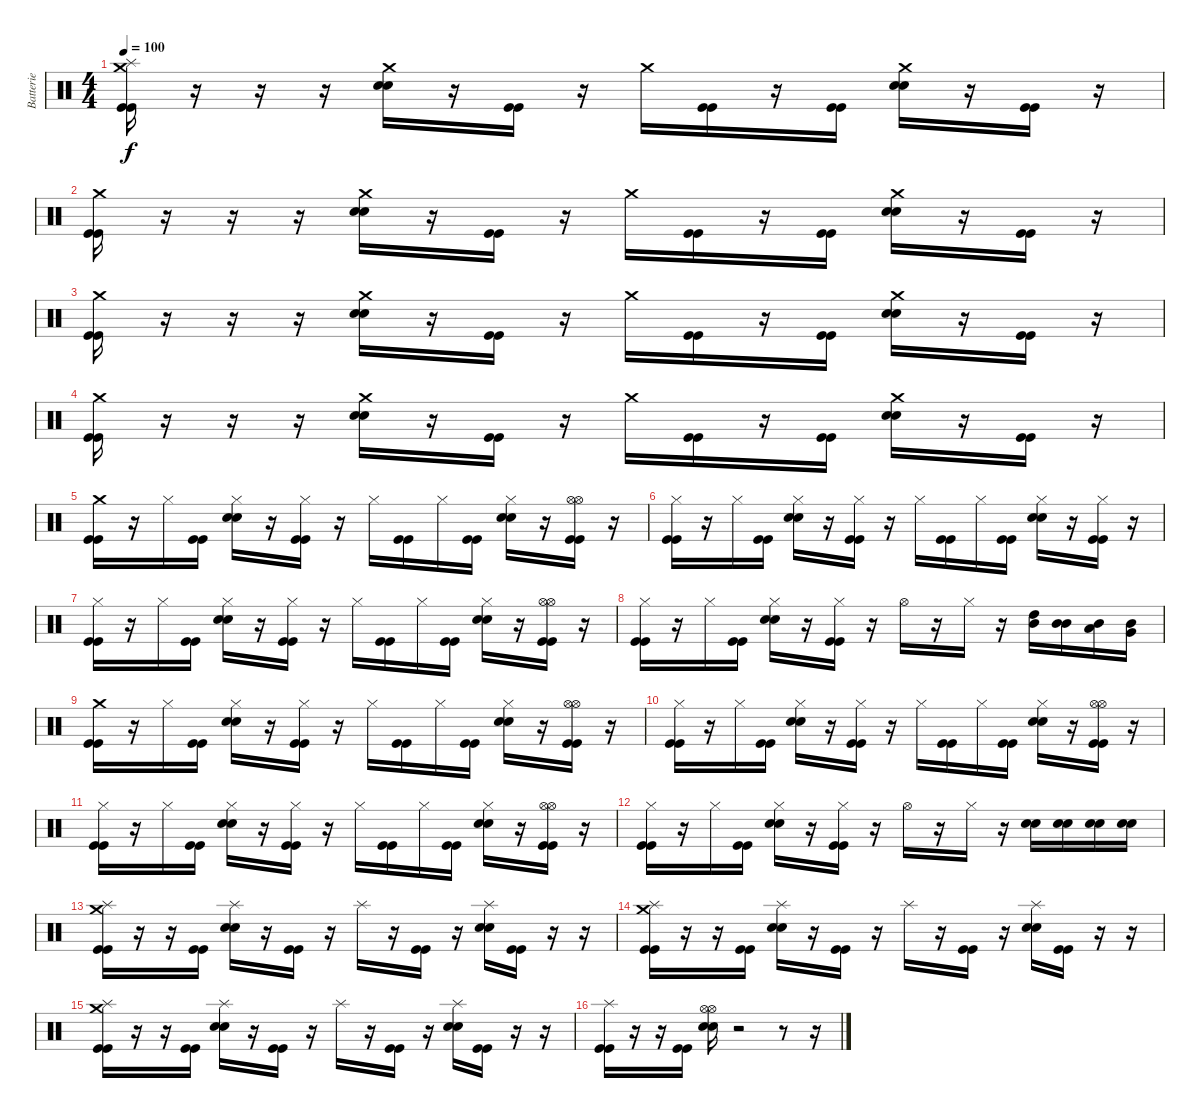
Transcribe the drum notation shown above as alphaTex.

\track ("Batterie" "Batterie") {instrument percussion}
\staff {score}
\articulation defaults
\ts (4 4)
\tempo 100
\clef neutral
\ks c
("Crash medium (hit)" "Splash (hit)" "Kick (hit)" "Kick (hit)").16{dy f} r.16 r.16 r.16 ("Crash medium (hit)" "Electric Snare (hit)" "Electric Snare (hit)").16 r.16 ("Kick (hit)" "Kick (hit)").16 r.16 "Crash medium (hit)".16 ("Kick (hit)" "Kick (hit)").16 r.16 ("Kick (hit)" "Kick (hit)").16 ("Crash medium (hit)" "Electric Snare (hit)" "Electric Snare (hit)").16 r.16 ("Kick (hit)" "Kick (hit)").16 r.16 |
("Crash medium (hit)" "Kick (hit)" "Kick (hit)").16 r.16 r.16 r.16 ("Crash medium (hit)" "Electric Snare (hit)" "Electric Snare (hit)").16 r.16 ("Kick (hit)" "Kick (hit)").16 r.16 "Crash medium (hit)".16 ("Kick (hit)" "Kick (hit)").16 r.16 ("Kick (hit)" "Kick (hit)").16 ("Crash medium (hit)" "Electric Snare (hit)" "Electric Snare (hit)").16 r.16 ("Kick (hit)" "Kick (hit)").16 r.16 |
("Crash medium (hit)" "Kick (hit)" "Kick (hit)").16 r.16 r.16 r.16 ("Crash medium (hit)" "Electric Snare (hit)" "Electric Snare (hit)").16 r.16 ("Kick (hit)" "Kick (hit)").16 r.16 "Crash medium (hit)".16 ("Kick (hit)" "Kick (hit)").16 r.16 ("Kick (hit)" "Kick (hit)").16 ("Crash medium (hit)" "Electric Snare (hit)" "Electric Snare (hit)").16 r.16 ("Kick (hit)" "Kick (hit)").16 r.16 |
("Crash medium (hit)" "Kick (hit)" "Kick (hit)").16 r.16 r.16 r.16 ("Crash medium (hit)" "Electric Snare (hit)" "Electric Snare (hit)").16 r.16 ("Kick (hit)" "Kick (hit)").16 r.16 "Crash medium (hit)".16 ("Kick (hit)" "Kick (hit)").16 r.16 ("Kick (hit)" "Kick (hit)").16 ("Crash medium (hit)" "Electric Snare (hit)" "Electric Snare (hit)").16 r.16 ("Kick (hit)" "Kick (hit)").16 r.16 |
("Crash medium (hit)" "Kick (hit)" "Kick (hit)").16 r.16 "Hi-Hat (closed)".16 ("Kick (hit)" "Kick (hit)").16 ("Hi-Hat (closed)" "Electric Snare (hit)" "Electric Snare (hit)").16 r.16 ("Hi-Hat (closed)" "Kick (hit)" "Kick (hit)").16 r.16 "Hi-Hat (closed)".16 ("Kick (hit)" "Kick (hit)").16 "Hi-Hat (closed)".16 ("Kick (hit)" "Kick (hit)").16 ("Hi-Hat (closed)" "Electric Snare (hit)" "Electric Snare (hit)").16 r.16 ("Hi-Hat (open)" "Hi-Hat (open)" "Kick (hit)" "Kick (hit)").16 r.16 |
("Hi-Hat (closed)" "Kick (hit)" "Kick (hit)").16 r.16 "Hi-Hat (closed)".16 ("Kick (hit)" "Kick (hit)").16 ("Hi-Hat (closed)" "Electric Snare (hit)" "Electric Snare (hit)").16 r.16 ("Hi-Hat (closed)" "Kick (hit)" "Kick (hit)").16 r.16 "Hi-Hat (closed)".16 ("Kick (hit)" "Kick (hit)").16 "Hi-Hat (closed)".16 ("Kick (hit)" "Kick (hit)").16 ("Hi-Hat (closed)" "Electric Snare (hit)" "Electric Snare (hit)").16 r.16 ("Hi-Hat (closed)" "Kick (hit)" "Kick (hit)").16 r.16 |
("Hi-Hat (closed)" "Kick (hit)" "Kick (hit)").16 r.16 "Hi-Hat (closed)".16 ("Kick (hit)" "Kick (hit)").16 ("Hi-Hat (closed)" "Electric Snare (hit)" "Electric Snare (hit)").16 r.16 ("Hi-Hat (closed)" "Kick (hit)" "Kick (hit)").16 r.16 "Hi-Hat (closed)".16 ("Kick (hit)" "Kick (hit)").16 "Hi-Hat (closed)".16 ("Kick (hit)" "Kick (hit)").16 ("Hi-Hat (closed)" "Electric Snare (hit)" "Electric Snare (hit)").16 r.16 ("Hi-Hat (open)" "Hi-Hat (open)" "Kick (hit)" "Kick (hit)").16 r.16 |
("Hi-Hat (closed)" "Kick (hit)" "Kick (hit)").16 r.16 "Hi-Hat (closed)".16 ("Kick (hit)" "Kick (hit)").16 ("Hi-Hat (closed)" "Electric Snare (hit)" "Electric Snare (hit)").16 r.16 ("Hi-Hat (closed)" "Kick (hit)" "Kick (hit)").16 r.16 "Hi-Hat (open)".16 r.16 "Hi-Hat (closed)".16 r.16 ("High Tom (hit)" "Mid Tom (hit)").16 ("Mid Tom (hit)" "Mid Tom (hit)").16 ("Low Tom (hit)" "Mid Tom (hit)").16 ("Very Low Tom (hit)" "Mid Tom (hit)").16 |
("Crash medium (hit)" "Kick (hit)" "Kick (hit)").16 r.16 "Hi-Hat (closed)".16 ("Kick (hit)" "Kick (hit)").16 ("Hi-Hat (closed)" "Electric Snare (hit)" "Electric Snare (hit)").16 r.16 ("Hi-Hat (closed)" "Kick (hit)" "Kick (hit)").16 r.16 "Hi-Hat (closed)".16 ("Kick (hit)" "Kick (hit)").16 "Hi-Hat (closed)".16 ("Kick (hit)" "Kick (hit)").16 ("Hi-Hat (closed)" "Electric Snare (hit)" "Electric Snare (hit)").16 r.16 ("Hi-Hat (open)" "Hi-Hat (open)" "Kick (hit)" "Kick (hit)").16 r.16 |
("Hi-Hat (closed)" "Kick (hit)" "Kick (hit)").16 r.16 "Hi-Hat (closed)".16 ("Kick (hit)" "Kick (hit)").16 ("Hi-Hat (closed)" "Electric Snare (hit)" "Electric Snare (hit)").16 r.16 ("Hi-Hat (closed)" "Kick (hit)" "Kick (hit)").16 r.16 "Hi-Hat (closed)".16 ("Kick (hit)" "Kick (hit)").16 "Hi-Hat (closed)".16 ("Kick (hit)" "Kick (hit)").16 ("Hi-Hat (closed)" "Electric Snare (hit)" "Electric Snare (hit)").16 r.16 ("Hi-Hat (open)" "Hi-Hat (open)" "Kick (hit)" "Kick (hit)").16 r.16 |
("Hi-Hat (closed)" "Kick (hit)" "Kick (hit)").16 r.16 "Hi-Hat (closed)".16 ("Kick (hit)" "Kick (hit)").16 ("Hi-Hat (closed)" "Electric Snare (hit)" "Electric Snare (hit)").16 r.16 ("Hi-Hat (closed)" "Kick (hit)" "Kick (hit)").16 r.16 "Hi-Hat (closed)".16 ("Kick (hit)" "Kick (hit)").16 "Hi-Hat (closed)".16 ("Kick (hit)" "Kick (hit)").16 ("Hi-Hat (closed)" "Electric Snare (hit)" "Electric Snare (hit)").16 r.16 ("Hi-Hat (open)" "Hi-Hat (open)" "Kick (hit)" "Kick (hit)").16 r.16 |
("Hi-Hat (closed)" "Kick (hit)" "Kick (hit)").16 r.16 "Hi-Hat (closed)".16 ("Kick (hit)" "Kick (hit)").16 ("Hi-Hat (closed)" "Electric Snare (hit)" "Electric Snare (hit)").16 r.16 ("Hi-Hat (closed)" "Kick (hit)" "Kick (hit)").16 r.16 "Hi-Hat (open)".16 r.16 "Hi-Hat (closed)".16 r.16 ("Electric Snare (hit)" "Electric Snare (hit)").16 ("Electric Snare (hit)" "Electric Snare (hit)").16 ("Electric Snare (hit)" "Electric Snare (hit)").16 ("Electric Snare (hit)" "Electric Snare (hit)").16 |
("Splash (hit)" "Crash medium (hit)" "Kick (hit)" "Kick (hit)").16 r.16 r.16 ("Kick (hit)" "Kick (hit)").16 ("Splash (hit)" "Electric Snare (hit)" "Electric Snare (hit)").16 r.16 ("Kick (hit)" "Kick (hit)").16 r.16 "Splash (hit)".16 r.16 ("Kick (hit)" "Kick (hit)").16 r.16 ("Splash (hit)" "Electric Snare (hit)" "Electric Snare (hit)").16 ("Kick (hit)" "Kick (hit)").16 r.16 r.16 |
("Splash (hit)" "Crash medium (hit)" "Kick (hit)" "Kick (hit)").16 r.16 r.16 ("Kick (hit)" "Kick (hit)").16 ("Splash (hit)" "Electric Snare (hit)" "Electric Snare (hit)").16 r.16 ("Kick (hit)" "Kick (hit)").16 r.16 "Splash (hit)".16 r.16 ("Kick (hit)" "Kick (hit)").16 r.16 ("Splash (hit)" "Electric Snare (hit)" "Electric Snare (hit)").16 ("Kick (hit)" "Kick (hit)").16 r.16 r.16 |
("Splash (hit)" "Crash medium (hit)" "Kick (hit)" "Kick (hit)").16 r.16 r.16 ("Kick (hit)" "Kick (hit)").16 ("Splash (hit)" "Electric Snare (hit)" "Electric Snare (hit)").16 r.16 ("Kick (hit)" "Kick (hit)").16 r.16 "Splash (hit)".16 r.16 ("Kick (hit)" "Kick (hit)").16 r.16 ("Splash (hit)" "Electric Snare (hit)" "Electric Snare (hit)").16 ("Kick (hit)" "Kick (hit)").16 r.16 r.16 |
("Splash (hit)" "Kick (hit)" "Kick (hit)").16 r.16 r.16 ("Kick (hit)" "Kick (hit)").16 ("Hi-Hat (open)" "Hi-Hat (open)" "Electric Snare (hit)" "Electric Snare (hit)").16 r.2 r.8 r.16
